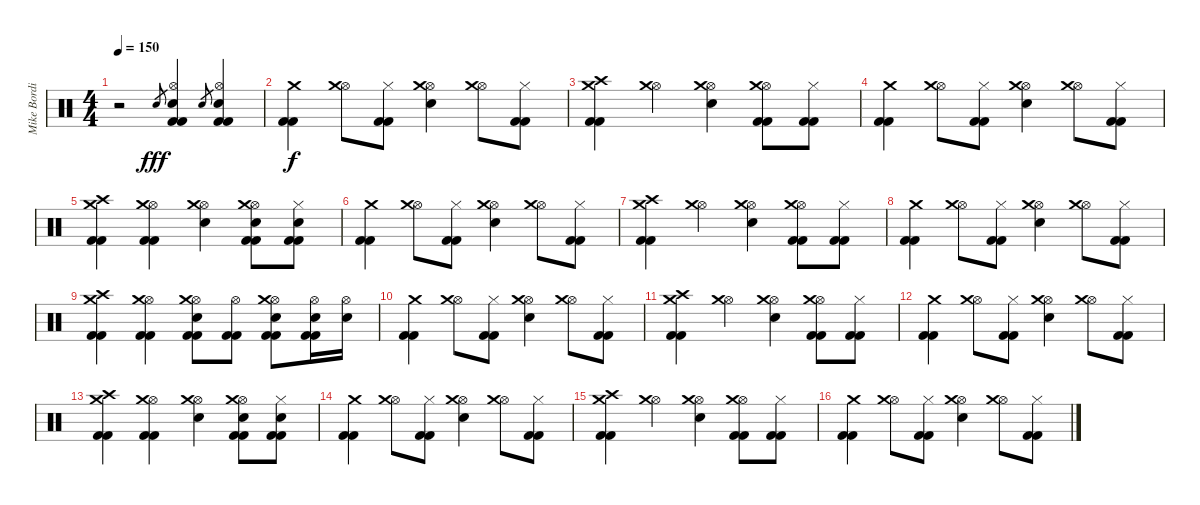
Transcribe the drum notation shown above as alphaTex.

\track ("Mike Bordin" "Mike Bordi") {instrument percussion}
\staff {score}
\articulation defaults
\ts (4 4)
\tempo 150
\clef neutral
\ks c
r.2{dy fff} "Electric Snare (hit)".8{gr} ("Hi-Hat (open)" "Electric Snare (hit)" "Kick (hit) 2" "Kick (hit) 2").4 "Electric Snare (hit)".8{gr} ("Hi-Hat (open)" "Electric Snare (hit)" "Kick (hit) 2" "Kick (hit) 2").4 |
("Crash medium (hit)" "Kick (hit) 2" "Kick (hit) 2").4{dy f} ("Hi-Hat (open)" "Crash medium (hit)").8 ("Hi-Hat (closed)" "Kick (hit) 2" "Kick (hit) 2").8 ("Hi-Hat (open)" "Crash medium (hit)" "Electric Snare (hit)").4 ("Hi-Hat (open)" "Crash medium (hit)").8 ("Hi-Hat (closed)" "Kick (hit) 2" "Kick (hit) 2").8 |
("Crash high (hit)" "Crash medium (hit)" "Kick (hit) 2" "Kick (hit) 2").4 ("Hi-Hat (open)" "Crash medium (hit)").4 ("Hi-Hat (open)" "Crash medium (hit)" "Electric Snare (hit)").4 ("Hi-Hat (open)" "Crash medium (hit)" "Kick (hit) 2" "Kick (hit) 2").8 ("Hi-Hat (closed)" "Kick (hit) 2" "Kick (hit) 2").8 |
("Crash medium (hit)" "Kick (hit) 2" "Kick (hit) 2").4 ("Hi-Hat (open)" "Crash medium (hit)").8 ("Hi-Hat (closed)" "Kick (hit) 2" "Kick (hit) 2").8 ("Hi-Hat (open)" "Crash medium (hit)" "Electric Snare (hit)").4 ("Hi-Hat (open)" "Crash medium (hit)").8 ("Hi-Hat (closed)" "Kick (hit) 2" "Kick (hit) 2").8 |
("Crash high (hit)" "Crash medium (hit)" "Kick (hit) 2" "Kick (hit) 2").4 ("Hi-Hat (open)" "Crash medium (hit)" "Kick (hit) 2" "Kick (hit) 2").4 ("Hi-Hat (open)" "Crash medium (hit)" "Electric Snare (hit)").4 ("Hi-Hat (open)" "Crash medium (hit)" "Electric Snare (hit)" "Kick (hit) 2" "Kick (hit) 2").8 ("Hi-Hat (closed)" "Electric Snare (hit)" "Kick (hit) 2" "Kick (hit) 2").8 |
("Crash medium (hit)" "Kick (hit) 2" "Kick (hit) 2").4 ("Hi-Hat (open)" "Crash medium (hit)").8 ("Hi-Hat (closed)" "Kick (hit) 2" "Kick (hit) 2").8 ("Hi-Hat (open)" "Crash medium (hit)" "Electric Snare (hit)").4 ("Hi-Hat (open)" "Crash medium (hit)").8 ("Hi-Hat (closed)" "Kick (hit) 2" "Kick (hit) 2").8 |
("Crash high (hit)" "Crash medium (hit)" "Kick (hit) 2" "Kick (hit) 2").4 ("Hi-Hat (open)" "Crash medium (hit)").4 ("Hi-Hat (open)" "Crash medium (hit)" "Electric Snare (hit)").4 ("Hi-Hat (open)" "Crash medium (hit)" "Kick (hit) 2" "Kick (hit) 2").8 ("Hi-Hat (closed)" "Kick (hit) 2" "Kick (hit) 2").8 |
("Crash medium (hit)" "Kick (hit) 2" "Kick (hit) 2").4 ("Hi-Hat (open)" "Crash medium (hit)").8 ("Hi-Hat (closed)" "Kick (hit) 2" "Kick (hit) 2").8 ("Hi-Hat (open)" "Crash medium (hit)" "Electric Snare (hit)").4 ("Hi-Hat (open)" "Crash medium (hit)").8 ("Hi-Hat (closed)" "Kick (hit) 2" "Kick (hit) 2").8 |
("Crash high (hit)" "Crash medium (hit)" "Kick (hit) 2" "Kick (hit) 2").4 ("Hi-Hat (open)" "Crash medium (hit)" "Kick (hit) 2" "Kick (hit) 2").4 ("Hi-Hat (open)" "Crash medium (hit)" "Electric Snare (hit)" "Kick (hit) 2" "Kick (hit) 2").8 ("Hi-Hat (open)" "Kick (hit) 2" "Kick (hit) 2").8 ("Hi-Hat (open)" "Crash medium (hit)" "Electric Snare (hit)" "Kick (hit) 2" "Kick (hit) 2").8 ("Hi-Hat (open)" "Electric Snare (hit)" "Kick (hit) 2" "Kick (hit) 2").16 ("Hi-Hat (open)" "Electric Snare (hit)").16 |
("Crash medium (hit)" "Kick (hit) 2" "Kick (hit) 2").4 ("Hi-Hat (open)" "Crash medium (hit)").8 ("Hi-Hat (closed)" "Kick (hit) 2" "Kick (hit) 2").8 ("Hi-Hat (open)" "Crash medium (hit)" "Electric Snare (hit)").4 ("Hi-Hat (open)" "Crash medium (hit)").8 ("Hi-Hat (closed)" "Kick (hit) 2" "Kick (hit) 2").8 |
("Crash high (hit)" "Crash medium (hit)" "Kick (hit) 2" "Kick (hit) 2").4 ("Hi-Hat (open)" "Crash medium (hit)").4 ("Hi-Hat (open)" "Crash medium (hit)" "Electric Snare (hit)").4 ("Hi-Hat (open)" "Crash medium (hit)" "Kick (hit) 2" "Kick (hit) 2").8 ("Hi-Hat (closed)" "Kick (hit) 2" "Kick (hit) 2").8 |
("Crash medium (hit)" "Kick (hit) 2" "Kick (hit) 2").4 ("Hi-Hat (open)" "Crash medium (hit)").8 ("Hi-Hat (closed)" "Kick (hit) 2" "Kick (hit) 2").8 ("Hi-Hat (open)" "Crash medium (hit)" "Electric Snare (hit)").4 ("Hi-Hat (open)" "Crash medium (hit)").8 ("Hi-Hat (closed)" "Kick (hit) 2" "Kick (hit) 2").8 |
("Crash high (hit)" "Crash medium (hit)" "Kick (hit) 2" "Kick (hit) 2").4 ("Hi-Hat (open)" "Crash medium (hit)" "Kick (hit) 2" "Kick (hit) 2").4 ("Hi-Hat (open)" "Crash medium (hit)" "Electric Snare (hit)").4 ("Hi-Hat (open)" "Crash medium (hit)" "Electric Snare (hit)" "Kick (hit) 2" "Kick (hit) 2").8 ("Hi-Hat (closed)" "Electric Snare (hit)" "Kick (hit) 2" "Kick (hit) 2").8 |
("Crash medium (hit)" "Kick (hit) 2" "Kick (hit) 2").4 ("Hi-Hat (open)" "Crash medium (hit)").8 ("Hi-Hat (closed)" "Kick (hit) 2" "Kick (hit) 2").8 ("Hi-Hat (open)" "Crash medium (hit)" "Electric Snare (hit)").4 ("Hi-Hat (open)" "Crash medium (hit)").8 ("Hi-Hat (closed)" "Kick (hit) 2" "Kick (hit) 2").8 |
("Crash high (hit)" "Crash medium (hit)" "Kick (hit) 2" "Kick (hit) 2").4 ("Hi-Hat (open)" "Crash medium (hit)").4 ("Hi-Hat (open)" "Crash medium (hit)" "Electric Snare (hit)").4 ("Hi-Hat (open)" "Crash medium (hit)" "Kick (hit) 2" "Kick (hit) 2").8 ("Hi-Hat (closed)" "Kick (hit) 2" "Kick (hit) 2").8 |
("Crash medium (hit)" "Kick (hit) 2" "Kick (hit) 2").4 ("Hi-Hat (open)" "Crash medium (hit)").8 ("Hi-Hat (closed)" "Kick (hit) 2" "Kick (hit) 2").8 ("Hi-Hat (open)" "Crash medium (hit)" "Electric Snare (hit)").4 ("Hi-Hat (open)" "Crash medium (hit)").8 ("Hi-Hat (closed)" "Kick (hit) 2" "Kick (hit) 2").8
